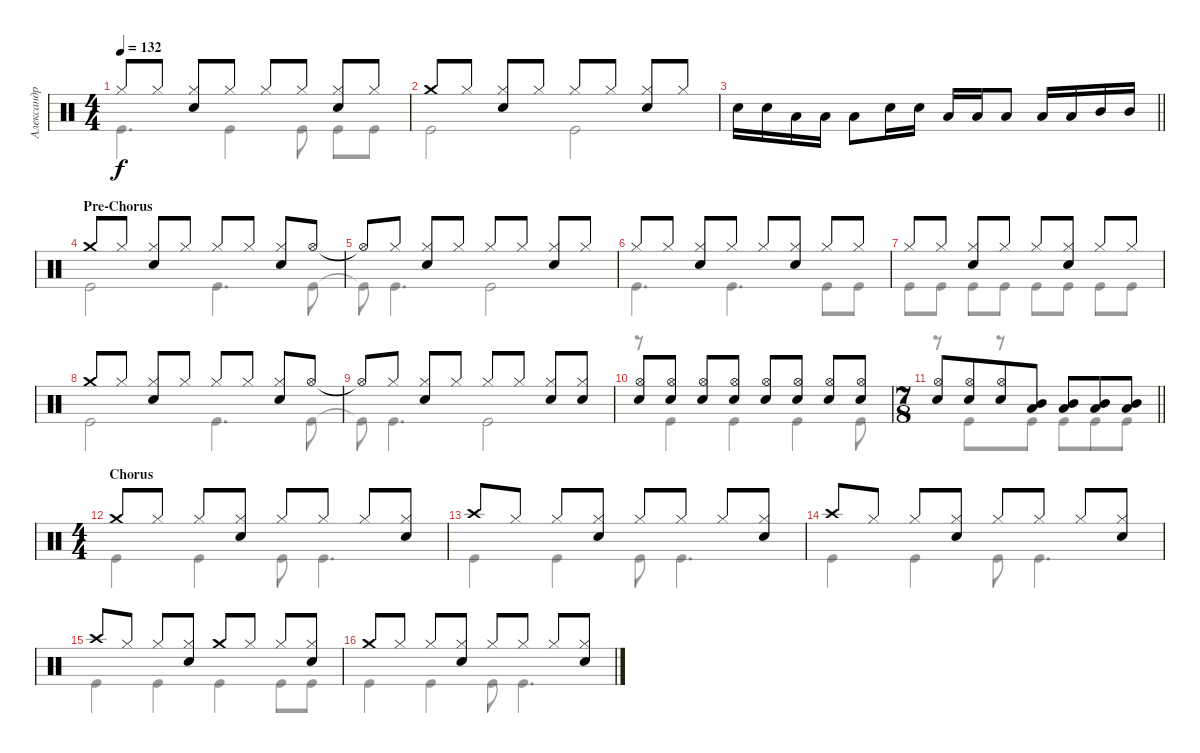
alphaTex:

\track ("Александр Манякин" "Александр ") {instrument percussion}
\staff {score}
\articulation defaults
\voice
\ts (4 4)
\tempo 132
\clef neutral
\ks c "Hi-Hat (closed)".8{dy f} "Hi-Hat (closed)".8
("Hi-Hat (closed)" "Snare (hit) 2").8 "Hi-Hat (closed)".8 "Hi-Hat (closed)".8 "Hi-Hat (closed)".8 ("Hi-Hat (closed)" "Snare (hit) 2").8 "Hi-Hat (closed)".8 |
"Crash medium (hit)".8 "Hi-Hat (closed)".8 ("Hi-Hat (closed)" "Snare (hit) 2").8 "Hi-Hat (closed)".8 "Hi-Hat (closed)".8 "Hi-Hat (closed)".8 ("Hi-Hat (closed)" "Snare (hit) 2").8 "Hi-Hat (closed)".8 |
\barLineRight lightlight "Snare (hit) 2".16 "Snare (hit) 2".16 "Low Tom (hit)".16 "Low Tom (hit)".16 "Low Tom (hit)".8 "Snare (hit) 2".16 "Snare (hit) 2".16 "Low Tom (hit)".16 "Low Tom (hit)".16 "Low Tom (hit)".8 "Low Tom (hit)".16 "Low Tom (hit)".16 "Mid Tom (hit)".16 "Mid Tom (hit)".16
|
\section ("" "Pre-Chorus")
"Crash medium (hit)".8 "Hi-Hat (closed)".8 ("Hi-Hat (closed)" "Snare (hit) 2").8 "Hi-Hat (closed)".8 "Hi-Hat (closed)".8 "Hi-Hat (closed)".8 ("Hi-Hat (closed)" "Snare (hit) 2").8 "Hi-Hat (open)".8 |
"Hi-Hat (open)"{t}.8 "Hi-Hat (closed)".8 ("Hi-Hat (closed)" "Snare (hit) 2").8 "Hi-Hat (closed)".8 "Hi-Hat (closed)".8 "Hi-Hat (closed)".8 ("Hi-Hat (closed)" "Snare (hit) 2").8 "Hi-Hat (closed)".8 |
"Hi-Hat (closed)".8 "Hi-Hat (closed)".8 ("Hi-Hat (closed)" "Snare (hit) 2").8 "Hi-Hat (closed)".8 "Hi-Hat (closed)".8 ("Hi-Hat (closed)" "Snare (hit) 2").8 "Hi-Hat (closed)".8 "Hi-Hat (closed)".8 |
"Hi-Hat (closed)".8 "Hi-Hat (closed)".8 ("Hi-Hat (closed)" "Snare (hit) 2").8 "Hi-Hat (closed)".8 "Hi-Hat (closed)".8 ("Hi-Hat (closed)" "Snare (hit) 2").8 "Hi-Hat (closed)".8 "Hi-Hat (closed)".8 |
"Crash medium (hit)".8 "Hi-Hat (closed)".8 ("Hi-Hat (closed)" "Snare (hit) 2").8 "Hi-Hat (closed)".8 "Hi-Hat (closed)".8 "Hi-Hat (closed)".8 ("Hi-Hat (closed)" "Snare (hit) 2").8 "Hi-Hat (open)".8 |
"Hi-Hat (open)"{t}.8 "Hi-Hat (closed)".8 ("Hi-Hat (closed)" "Snare (hit) 2").8 "Hi-Hat (closed)".8 "Hi-Hat (closed)".8 "Hi-Hat (closed)".8 ("Hi-Hat (closed)" "Snare (hit) 2").8 ("Hi-Hat (closed)" "Snare (hit) 2").8 |
("Snare (hit) 2" "Hi-Hat (open)").8 ("Snare (hit) 2" "Hi-Hat (open)").8 ("Snare (hit) 2" "Hi-Hat (open)").8 ("Snare (hit) 2" "Hi-Hat (open)").8 ("Snare (hit) 2" "Hi-Hat (open)").8 ("Snare (hit) 2" "Hi-Hat (open)").8 ("Snare (hit) 2" "Hi-Hat (open)").8 ("Snare (hit) 2" "Hi-Hat (open)").8 |
\ts (7 8)
\barLineRight lightlight
("Snare (hit) 2" "Hi-Hat (open)").8 ("Snare (hit) 2" "Hi-Hat (open)").8 ("Hi-Hat (open)" "Snare (hit) 2").8 ("Low Tom (hit)" "Mid Tom (hit)").8 ("Low Tom (hit)" "Mid Tom (hit)").8 ("Low Tom (hit)" "Mid Tom (hit)").8 ("Low Tom (hit)" "Mid Tom (hit)").8 |
\ts (4 4)
\section ("" "Chorus")
"Crash medium (hit)".8 "Hi-Hat (closed)".8 "Hi-Hat (closed)".8 ("Hi-Hat (closed)" "Snare (hit) 2").8 "Hi-Hat (closed)".8 "Hi-Hat (closed)".8 "Hi-Hat (closed)".8 ("Hi-Hat (closed)" "Snare (hit) 2").8 |
"Crash high (hit)".8 "Hi-Hat (closed)".8 "Hi-Hat (closed)".8 ("Hi-Hat (closed)" "Snare (hit) 2").8 "Hi-Hat (closed)".8 "Hi-Hat (closed)".8 "Hi-Hat (closed)".8 ("Hi-Hat (closed)" "Snare (hit) 2").8 |
"Crash high (hit)".8 "Hi-Hat (closed)".8 "Hi-Hat (closed)".8 ("Hi-Hat (closed)" "Snare (hit) 2").8 "Hi-Hat (closed)".8 "Hi-Hat (closed)".8 "Hi-Hat (closed)".8 ("Hi-Hat (closed)" "Snare (hit) 2").8 |
"Crash high (hit)".8 "Hi-Hat (closed)".8 "Hi-Hat (closed)".8 ("Hi-Hat (closed)" "Snare (hit) 2").8 "Crash medium (hit)".8 "Hi-Hat (closed)".8 "Hi-Hat (closed)".8 ("Hi-Hat (closed)" "Snare (hit) 2").8 |
"Crash medium (hit)".8 "Hi-Hat (closed)".8 "Hi-Hat (closed)".8 ("Hi-Hat (closed)" "Snare (hit) 2").8 "Hi-Hat (closed)".8 "Hi-Hat (closed)".8 "Hi-Hat (closed)".8 ("Hi-Hat (closed)" "Snare (hit) 2").8
\voice
\clef neutral
\ottava regular
\simile none
\ks c "Kick (hit)".4{d dy f} "Kick (hit)".4 "Kick (hit)".8 "Kick (hit)".8 "Kick (hit)".8
|
"Kick (hit)".2 "Kick (hit)".2 |
\barLineRight lightlight
|
"Kick (hit)".2 "Kick (hit)".4{d} "Kick (hit)".8 |
"Kick (hit)"{t}.8 "Kick (hit)".4{d} "Kick (hit)".2 |
"Kick (hit)".4{d} "Kick (hit)".4{d} "Kick (hit)".8 "Kick (hit)".8 |
"Kick (hit)".8 "Kick (hit)".8 "Kick (hit)".8 "Kick (hit)".8 "Kick (hit)".8 "Kick (hit)".8 "Kick (hit)".8 "Kick (hit)".8 |
"Kick (hit)".2 "Kick (hit)".4{d} "Kick (hit)".8 |
"Kick (hit)"{t}.8 "Kick (hit)".4{d} "Kick (hit)".2 |
r.8 "Kick (hit)".4 "Kick (hit)".4 "Kick (hit)".4 "Kick (hit)".8 |
\barLineRight lightlight
r.8 "Kick (hit)".8 r.8 "Kick (hit)".8 "Kick (hit)".8 "Kick (hit)".8 "Kick (hit)".8 |
"Kick (hit)".4 "Kick (hit)".4 "Kick (hit)".8 "Kick (hit)".4{d} |
"Kick (hit)".4 "Kick (hit)".4 "Kick (hit)".8 "Kick (hit)".4{d} |
"Kick (hit)".4 "Kick (hit)".4 "Kick (hit)".8 "Kick (hit)".4{d} |
"Kick (hit)".4 "Kick (hit)".4 "Kick (hit)".4 "Kick (hit)".8 "Kick (hit)".8 |
"Kick (hit)".4 "Kick (hit)".4 "Kick (hit)".8 "Kick (hit)".4{d}
